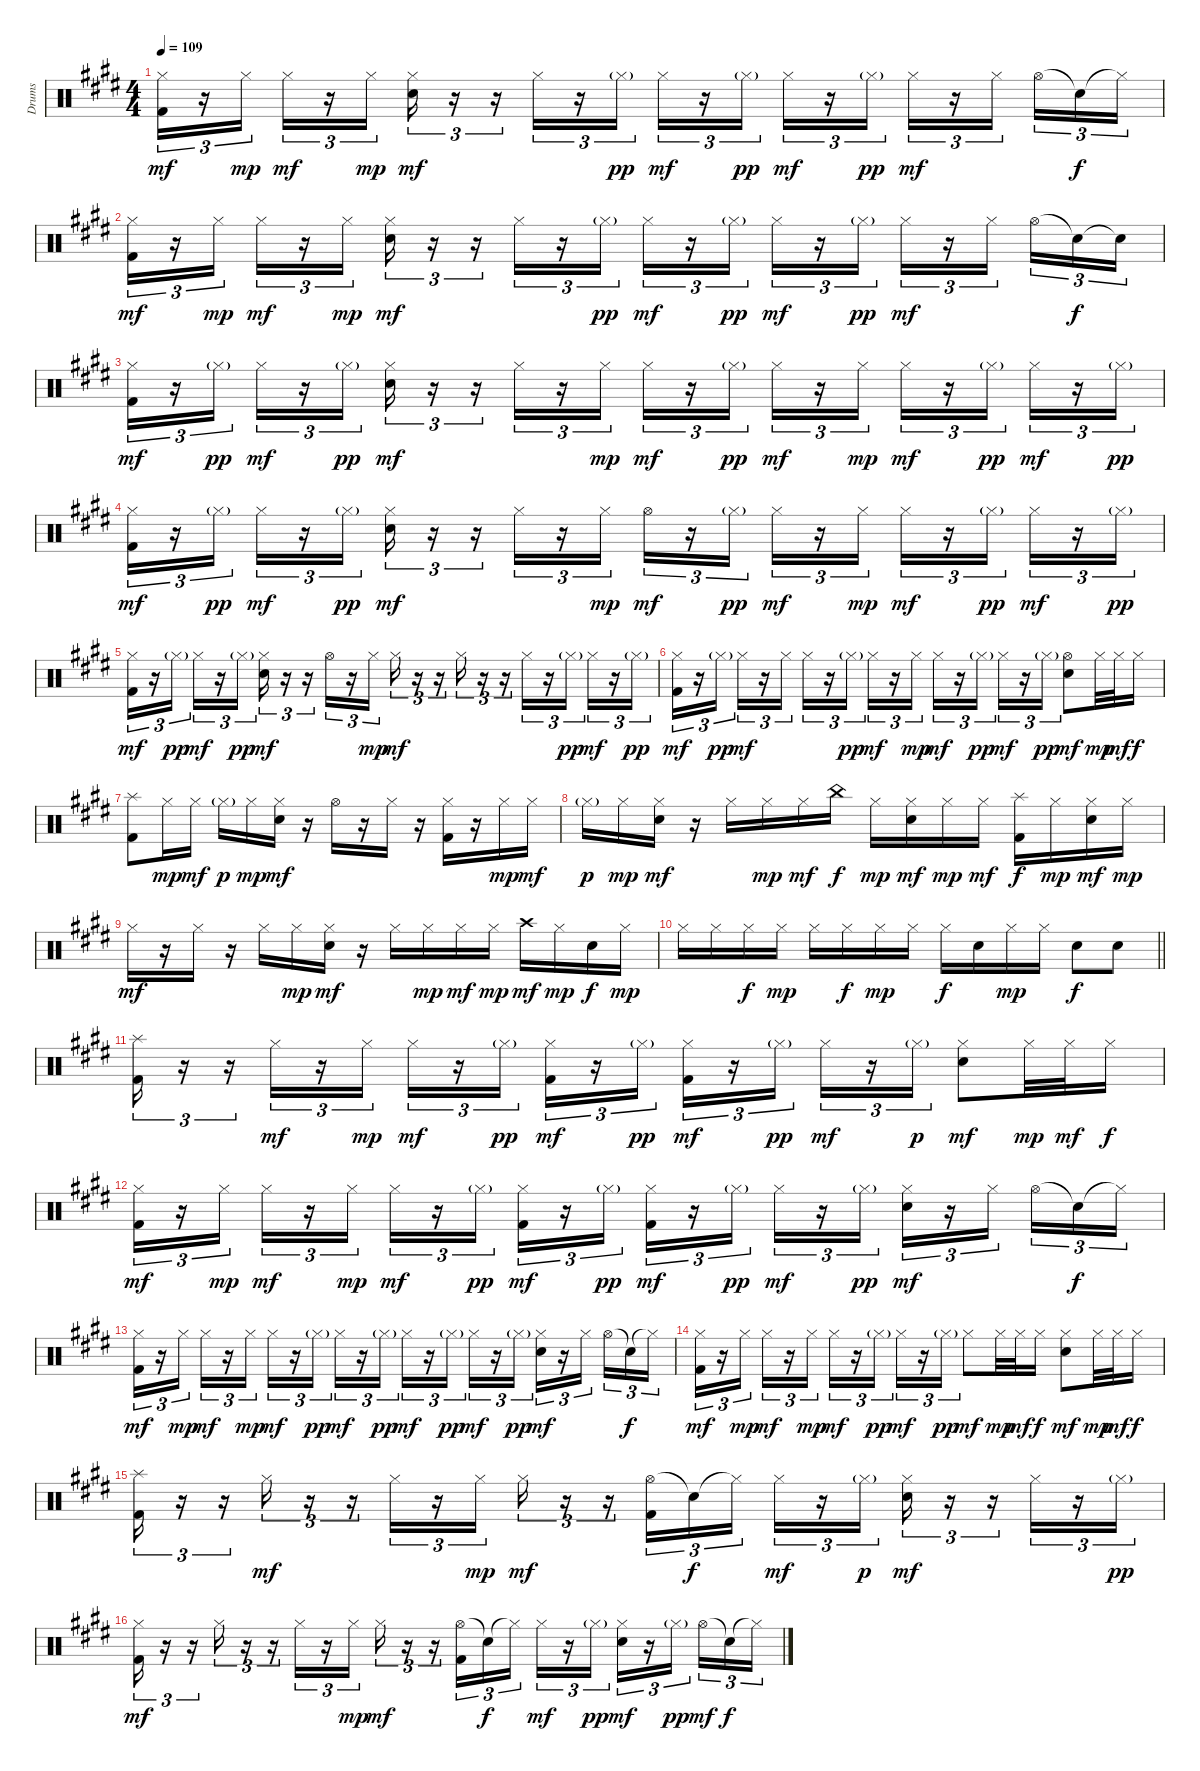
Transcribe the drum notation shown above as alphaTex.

\track ("Drums" "Drums") {instrument percussion}
\staff {score}
\articulation defaults
\ts (4 4)
\tempo 109
\clef neutral
\ks e
("Hi-Hat (closed)" "Kick (hit) 2").16{tu (3 2) dy mf} r.16{tu (3 2)} "Hi-Hat (closed)".16{tu (3 2) dy mp} "Hi-Hat (closed)".16{tu (3 2) dy mf} r.16{tu (3 2)} "Hi-Hat (closed)".16{tu (3 2) dy mp} ("Hi-Hat (closed)" "Electric Snare (hit)").16{tu (3 2) dy mf} r.16{tu (3 2)} r.16{tu (3 2)} "Hi-Hat (closed)".16{tu (3 2)} r.16{tu (3 2)} "Hi-Hat (closed)"{g}.16{tu (3 2) dy pp} "Hi-Hat (closed)".16{tu (3 2) dy mf} r.16{tu (3 2)} "Hi-Hat (closed)"{g}.16{tu (3 2) dy pp} "Hi-Hat (closed)".16{tu (3 2) dy mf} r.16{tu (3 2)} "Hi-Hat (closed)"{g}.16{tu (3 2) dy pp} "Hi-Hat (closed)".16{tu (3 2) dy mf} r.16{tu (3 2)} "Hi-Hat (closed)".16{tu (3 2) beam splitsecondary} "Hi-Hat (open)".16{tu (3 2)} "Snare (hit)"{t}.16{tu (3 2) dy f} "Hi-Hat (closed)"{t}.16{tu (3 2)} |
("Hi-Hat (closed)" "Kick (hit) 2").16{tu (3 2) dy mf} r.16{tu (3 2)} "Hi-Hat (closed)".16{tu (3 2) dy mp} "Hi-Hat (closed)".16{tu (3 2) dy mf} r.16{tu (3 2)} "Hi-Hat (closed)".16{tu (3 2) dy mp} ("Hi-Hat (closed)" "Electric Snare (hit)").16{tu (3 2) dy mf} r.16{tu (3 2)} r.16{tu (3 2)} "Hi-Hat (closed)".16{tu (3 2)} r.16{tu (3 2)} "Hi-Hat (closed)"{g}.16{tu (3 2) dy pp} "Hi-Hat (closed)".16{tu (3 2) dy mf} r.16{tu (3 2)} "Hi-Hat (closed)"{g}.16{tu (3 2) dy pp} "Hi-Hat (closed)".16{tu (3 2) dy mf} r.16{tu (3 2)} "Hi-Hat (closed)"{g}.16{tu (3 2) dy pp} "Hi-Hat (closed)".16{tu (3 2) dy mf} r.16{tu (3 2)} "Hi-Hat (closed)".16{tu (3 2) beam splitsecondary} "Hi-Hat (open)".16{tu (3 2)} "Snare (hit)"{t}.16{tu (3 2) dy f} "Snare (hit)"{t}.16{tu (3 2)} |
("Hi-Hat (closed)" "Kick (hit) 2").16{tu (3 2) dy mf} r.16{tu (3 2)} "Hi-Hat (closed)"{g}.16{tu (3 2) dy pp} "Hi-Hat (closed)".16{tu (3 2) dy mf} r.16{tu (3 2)} "Hi-Hat (closed)"{g}.16{tu (3 2) dy pp} ("Hi-Hat (closed)" "Electric Snare (hit)").16{tu (3 2) dy mf} r.16{tu (3 2)} r.16{tu (3 2)} "Hi-Hat (closed)".16{tu (3 2)} r.16{tu (3 2)} "Hi-Hat (closed)".16{tu (3 2) dy mp} "Hi-Hat (closed)".16{tu (3 2) dy mf} r.16{tu (3 2)} "Hi-Hat (closed)"{g}.16{tu (3 2) dy pp} "Hi-Hat (closed)".16{tu (3 2) dy mf} r.16{tu (3 2)} "Hi-Hat (closed)".16{tu (3 2) dy mp} "Hi-Hat (closed)".16{tu (3 2) dy mf} r.16{tu (3 2)} "Hi-Hat (closed)"{g}.16{tu (3 2) dy pp} "Hi-Hat (closed)".16{tu (3 2) dy mf} r.16{tu (3 2)} "Hi-Hat (closed)"{g}.16{tu (3 2) dy pp} |
("Hi-Hat (closed)" "Kick (hit) 2").16{tu (3 2) dy mf} r.16{tu (3 2)} "Hi-Hat (closed)"{g}.16{tu (3 2) dy pp} "Hi-Hat (closed)".16{tu (3 2) dy mf} r.16{tu (3 2)} "Hi-Hat (closed)"{g}.16{tu (3 2) dy pp} ("Hi-Hat (closed)" "Electric Snare (hit)").16{tu (3 2) dy mf} r.16{tu (3 2)} r.16{tu (3 2)} "Hi-Hat (closed)".16{tu (3 2)} r.16{tu (3 2)} "Hi-Hat (closed)".16{tu (3 2) dy mp} "Hi-Hat (open)".16{tu (3 2) dy mf} r.16{tu (3 2)} "Hi-Hat (closed)"{g}.16{tu (3 2) dy pp} "Hi-Hat (closed)".16{tu (3 2) dy mf} r.16{tu (3 2)} "Hi-Hat (closed)".16{tu (3 2) dy mp} "Hi-Hat (closed)".16{tu (3 2) dy mf} r.16{tu (3 2)} "Hi-Hat (closed)"{g}.16{tu (3 2) dy pp} "Hi-Hat (closed)".16{tu (3 2) dy mf} r.16{tu (3 2)} "Hi-Hat (closed)"{g}.16{tu (3 2) dy pp} |
("Hi-Hat (closed)" "Kick (hit) 2").16{tu (3 2) dy mf} r.16{tu (3 2)} "Hi-Hat (closed)"{g}.16{tu (3 2) dy pp} "Hi-Hat (closed)".16{tu (3 2) dy mf} r.16{tu (3 2)} "Hi-Hat (closed)"{g}.16{tu (3 2) dy pp} ("Hi-Hat (closed)" "Electric Snare (hit)").16{tu (3 2) dy mf} r.16{tu (3 2)} r.16{tu (3 2)} "Hi-Hat (open)".16{tu (3 2)} r.16{tu (3 2)} "Hi-Hat (closed)".16{tu (3 2) dy mp} "Hi-Hat (closed)".16{tu (3 2) dy mf} r.16{tu (3 2)} r.16{tu (3 2)} "Hi-Hat (closed)".16{tu (3 2)} r.16{tu (3 2)} r.16{tu (3 2)} "Hi-Hat (closed)".16{tu (3 2)} r.16{tu (3 2)} "Hi-Hat (closed)"{g}.16{tu (3 2) dy pp} "Hi-Hat (closed)".16{tu (3 2) dy mf} r.16{tu (3 2)} "Hi-Hat (closed)"{g}.16{tu (3 2) dy pp} |
("Hi-Hat (closed)" "Kick (hit) 2").16{tu (3 2) dy mf} r.16{tu (3 2)} "Hi-Hat (closed)"{g}.16{tu (3 2) dy pp} "Hi-Hat (closed)".16{tu (3 2) dy mf} r.16{tu (3 2)} "Hi-Hat (closed)".16{tu (3 2)} "Hi-Hat (closed)".16{tu (3 2)} r.16{tu (3 2)} "Hi-Hat (closed)"{g}.16{tu (3 2) dy pp} "Hi-Hat (closed)".16{tu (3 2) dy mf} r.16{tu (3 2)} "Hi-Hat (closed)".16{tu (3 2) dy mp} "Hi-Hat (closed)".16{tu (3 2) dy mf} r.16{tu (3 2)} "Hi-Hat (closed)"{g}.16{tu (3 2) dy pp} "Hi-Hat (closed)".16{tu (3 2) dy mf} r.16{tu (3 2)} "Hi-Hat (closed)"{g}.16{tu (3 2) dy pp} ("Hi-Hat (open)" "Electric Snare (hit)").8{dy mf} "Hi-Hat (closed)".32{dy mp} "Hi-Hat (closed)".32{dy mf} "Hi-Hat (closed)".16{dy f} |
("Splash (hit)" "Kick (hit) 2").8 "Hi-Hat (closed)".16{dy mp} "Hi-Hat (closed)".16{dy mf} "Hi-Hat (closed)"{g}.16{dy p} "Hi-Hat (closed)".16{dy mp} ("Hi-Hat (closed)" "Electric Snare (hit)").16{dy mf} r.16 "Hi-Hat (open)".16 r.16 "Hi-Hat (closed)".16 r.16 ("Hi-Hat (closed)" "Kick (hit) 2").16 r.16 "Hi-Hat (closed)".16{dy mp} "Hi-Hat (closed)".16{dy mf} |
"Hi-Hat (closed)"{g}.16{dy p} "Hi-Hat (closed)".16{dy mp} ("Hi-Hat (closed)" "Electric Snare (hit)").16{dy mf} r.16 "Hi-Hat (closed)".16 "Hi-Hat (closed)".16{dy mp} "Hi-Hat (closed)".16{dy mf} "China (hit)".16{dy f} "Hi-Hat (closed)".16{dy mp} ("Hi-Hat (closed)" "Electric Snare (hit)").16{dy mf} "Hi-Hat (closed)".16{dy mp} "Hi-Hat (closed)".16{dy mf} ("Splash (hit)" "Kick (hit) 2").16{dy f} "Hi-Hat (closed)".16{dy mp} ("Hi-Hat (closed)" "Electric Snare (hit)").16{dy mf} "Hi-Hat (closed)".16{dy mp} |
"Hi-Hat (closed)".16{dy mf} r.16 "Hi-Hat (closed)".16 r.16 "Hi-Hat (closed)".16 "Hi-Hat (closed)".16{dy mp} ("Hi-Hat (closed)" "Electric Snare (hit)").16{dy mf} r.16 "Hi-Hat (closed)".16 "Hi-Hat (closed)".16{dy mp} "Hi-Hat (closed)".16{dy mf} "Hi-Hat (closed)".16{dy mp} "Crash high (hit)".16{dy mf} "Hi-Hat (closed)".16{dy mp} "Electric Snare (hit)".16{dy f} "Hi-Hat (closed)".16{dy mp} |
\barLineRight lightlight "Hi-Hat (closed)".16 "Hi-Hat (closed)".16 "Hi-Hat (closed)".16{dy f} "Hi-Hat (closed)".16{dy mp} "Hi-Hat (closed)".16 "Hi-Hat (closed)".16{dy f} "Hi-Hat (closed)".16{dy mp} "Hi-Hat (closed)".16 "Hi-Hat (closed)".16{dy f} "Electric Snare (hit)".16 "Hi-Hat (closed)".16{dy mp} "Hi-Hat (closed)".16 "Electric Snare (hit)".8{dy f} "Electric Snare (hit)".8
|
("Splash (hit)" "Kick (hit) 2").16{tu (3 2)} r.16{tu (3 2)} r.16{tu (3 2)} "Hi-Hat (closed)".16{tu (3 2) dy mf} r.16{tu (3 2)} "Hi-Hat (closed)".16{tu (3 2) dy mp} "Hi-Hat (closed)".16{tu (3 2) dy mf} r.16{tu (3 2)} "Hi-Hat (closed)"{g}.16{tu (3 2) dy pp} ("Hi-Hat (closed)" "Kick (hit) 2").16{tu (3 2) dy mf} r.16{tu (3 2)} "Hi-Hat (closed)"{g}.16{tu (3 2) dy pp} ("Hi-Hat (closed)" "Kick (hit) 2").16{tu (3 2) dy mf} r.16{tu (3 2)} "Hi-Hat (closed)"{g}.16{tu (3 2) dy pp} "Hi-Hat (closed)".16{tu (3 2) dy mf} r.16{tu (3 2)} "Hi-Hat (closed)"{g}.16{tu (3 2) dy p} ("Hi-Hat (closed)" "Electric Snare (hit)").8{dy mf} "Hi-Hat (closed)".32{dy mp} "Hi-Hat (closed)".32{dy mf} "Hi-Hat (closed)".16{dy f} |
("Hi-Hat (closed)" "Kick (hit) 2").16{tu (3 2) dy mf} r.16{tu (3 2)} "Hi-Hat (closed)".16{tu (3 2) dy mp} "Hi-Hat (closed)".16{tu (3 2) dy mf} r.16{tu (3 2)} "Hi-Hat (closed)".16{tu (3 2) dy mp} "Hi-Hat (closed)".16{tu (3 2) dy mf} r.16{tu (3 2)} "Hi-Hat (closed)"{g}.16{tu (3 2) dy pp} ("Hi-Hat (closed)" "Kick (hit) 2").16{tu (3 2) dy mf} r.16{tu (3 2)} "Hi-Hat (closed)"{g}.16{tu (3 2) dy pp} ("Hi-Hat (closed)" "Kick (hit) 2").16{tu (3 2) dy mf} r.16{tu (3 2)} "Hi-Hat (closed)"{g}.16{tu (3 2) dy pp} "Hi-Hat (closed)".16{tu (3 2) dy mf} r.16{tu (3 2)} "Hi-Hat (closed)"{g}.16{tu (3 2) dy pp} ("Hi-Hat (closed)" "Electric Snare (hit)").16{tu (3 2) dy mf} r.16{tu (3 2)} "Hi-Hat (closed)".16{tu (3 2) beam splitsecondary} "Hi-Hat (open)".16{tu (3 2)} "Snare (hit)"{t}.16{tu (3 2) dy f} "Hi-Hat (closed)"{t}.16{tu (3 2)} |
("Hi-Hat (closed)" "Kick (hit) 2").16{tu (3 2) dy mf} r.16{tu (3 2)} "Hi-Hat (closed)".16{tu (3 2) dy mp} "Hi-Hat (closed)".16{tu (3 2) dy mf} r.16{tu (3 2)} "Hi-Hat (closed)".16{tu (3 2) dy mp} "Hi-Hat (closed)".16{tu (3 2) dy mf} r.16{tu (3 2)} "Hi-Hat (closed)"{g}.16{tu (3 2) dy pp} "Hi-Hat (closed)".16{tu (3 2) dy mf} r.16{tu (3 2)} "Hi-Hat (closed)"{g}.16{tu (3 2) dy pp} "Hi-Hat (closed)".16{tu (3 2) dy mf} r.16{tu (3 2)} "Hi-Hat (closed)"{g}.16{tu (3 2) dy pp} "Hi-Hat (closed)".16{tu (3 2) dy mf} r.16{tu (3 2)} "Hi-Hat (closed)"{g}.16{tu (3 2) dy pp} ("Hi-Hat (closed)" "Electric Snare (hit)").16{tu (3 2) dy mf} r.16{tu (3 2)} "Hi-Hat (closed)".16{tu (3 2) beam splitsecondary} "Hi-Hat (open)".16{tu (3 2)} "Snare (hit)"{t}.16{tu (3 2) dy f} "Hi-Hat (closed)"{t}.16{tu (3 2)} |
("Hi-Hat (closed)" "Kick (hit) 2").16{tu (3 2) dy mf} r.16{tu (3 2)} "Hi-Hat (closed)".16{tu (3 2) dy mp} "Hi-Hat (closed)".16{tu (3 2) dy mf} r.16{tu (3 2)} "Hi-Hat (closed)".16{tu (3 2) dy mp} "Hi-Hat (closed)".16{tu (3 2) dy mf} r.16{tu (3 2)} "Hi-Hat (closed)"{g}.16{tu (3 2) dy pp} "Hi-Hat (closed)".16{tu (3 2) dy mf} r.16{tu (3 2)} "Hi-Hat (closed)"{g}.16{tu (3 2) dy pp} "Hi-Hat (closed)".8{dy mf} "Hi-Hat (closed)".32{dy mp} "Hi-Hat (closed)".32{dy mf} "Hi-Hat (closed)".16{dy f} ("Hi-Hat (closed)" "Electric Snare (hit)").8{dy mf} "Hi-Hat (closed)".32{dy mp} "Hi-Hat (closed)".32{dy mf} "Hi-Hat (closed)".16{dy f} |
("Splash (hit)" "Kick (hit) 2").16{tu (3 2)} r.16{tu (3 2)} r.16{tu (3 2)} "Hi-Hat (closed)".16{tu (3 2) dy mf} r.16{tu (3 2)} r.16{tu (3 2)} "Hi-Hat (closed)".16{tu (3 2)} r.16{tu (3 2)} "Hi-Hat (closed)".16{tu (3 2) dy mp} "Hi-Hat (closed)".16{tu (3 2) dy mf} r.16{tu (3 2)} r.16{tu (3 2)} ("Hi-Hat (open)" "Kick (hit) 2").16{tu (3 2)} "Snare (hit)"{t}.16{tu (3 2) dy f} "Hi-Hat (closed)"{t}.16{tu (3 2) beam splitsecondary} "Hi-Hat (closed)".16{tu (3 2) dy mf} r.16{tu (3 2)} "Hi-Hat (closed)"{g}.16{tu (3 2) dy p} ("Hi-Hat (closed)" "Electric Snare (hit)").16{tu (3 2) dy mf} r.16{tu (3 2)} r.16{tu (3 2)} "Hi-Hat (closed)".16{tu (3 2)} r.16{tu (3 2)} "Hi-Hat (closed)"{g}.16{tu (3 2) dy pp} |
("Hi-Hat (closed)" "Kick (hit) 2").16{tu (3 2) dy mf} r.16{tu (3 2)} r.16{tu (3 2)} "Hi-Hat (closed)".16{tu (3 2)} r.16{tu (3 2)} r.16{tu (3 2)} "Hi-Hat (closed)".16{tu (3 2)} r.16{tu (3 2)} "Hi-Hat (closed)".16{tu (3 2) dy mp} "Hi-Hat (closed)".16{tu (3 2) dy mf} r.16{tu (3 2)} r.16{tu (3 2)} ("Hi-Hat (open)" "Kick (hit) 2").16{tu (3 2)} "Snare (hit)"{t}.16{tu (3 2) dy f} "Hi-Hat (closed)"{t}.16{tu (3 2) beam splitsecondary} "Hi-Hat (closed)".16{tu (3 2) dy mf} r.16{tu (3 2)} "Hi-Hat (closed)"{g}.16{tu (3 2) dy pp} ("Hi-Hat (closed)" "Electric Snare (hit)").16{tu (3 2) dy mf} r.16{tu (3 2)} "Hi-Hat (closed)"{g}.16{tu (3 2) dy pp beam splitsecondary} "Hi-Hat (open)".16{tu (3 2) dy mf} "Snare (hit)"{t}.16{tu (3 2) dy f} "Hi-Hat (closed)"{t}.16{tu (3 2)}
